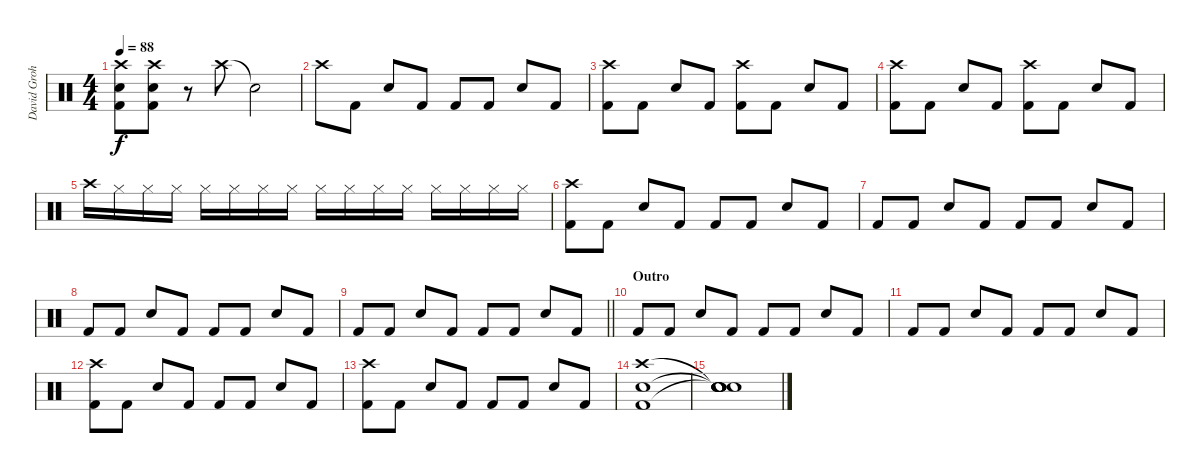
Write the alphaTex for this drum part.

\track ("David Grohl/Alfredo Ortiz" "David Groh") {instrument percussion}
\staff {score}
\articulation defaults
\ts (4 4)
\tempo 88
\clef neutral
\ks c
("Crash high (hit)" "Snare (hit) 2" "Kick (hit) 2").8{dy f} ("Crash high (hit)" "Snare (hit) 2" "Kick (hit) 2").8 r.8 "Crash high (hit)".8 "Snare (hit)"{t}.2 |
"Crash high (hit)".8 "Kick (hit) 2".8 "Snare (hit) 2".8 "Kick (hit) 2".8 "Kick (hit) 2".8 "Kick (hit) 2".8 "Snare (hit) 2".8 "Kick (hit) 2".8 |
("Crash high (hit)" "Kick (hit) 2").8 "Kick (hit) 2".8 "Snare (hit) 2".8 "Kick (hit) 2".8 ("Crash high (hit)" "Kick (hit) 2").8 "Kick (hit) 2".8 "Snare (hit) 2".8 "Kick (hit) 2".8 |
("Crash high (hit)" "Kick (hit) 2").8 "Kick (hit) 2".8 "Snare (hit) 2".8 "Kick (hit) 2".8 ("Crash high (hit)" "Kick (hit) 2").8 "Kick (hit) 2".8 "Snare (hit) 2".8 "Kick (hit) 2".8 |
"Crash high (hit)".16 "Hi-Hat (closed)".16 "Hi-Hat (closed)".16 "Hi-Hat (closed)".16 "Hi-Hat (closed)".16 "Hi-Hat (closed)".16 "Hi-Hat (closed)".16 "Hi-Hat (closed)".16 "Hi-Hat (closed)".16 "Hi-Hat (closed)".16 "Hi-Hat (closed)".16 "Hi-Hat (closed)".16 "Hi-Hat (closed)".16 "Hi-Hat (closed)".16 "Hi-Hat (closed)".16 "Hi-Hat (closed)".16 |
("Crash high (hit)" "Kick (hit) 2").8 "Kick (hit) 2".8 "Snare (hit) 2".8 "Kick (hit) 2".8 "Kick (hit) 2".8 "Kick (hit) 2".8 "Snare (hit) 2".8 "Kick (hit) 2".8 |
"Kick (hit) 2".8 "Kick (hit) 2".8 "Snare (hit) 2".8 "Kick (hit) 2".8 "Kick (hit) 2".8 "Kick (hit) 2".8 "Snare (hit) 2".8 "Kick (hit) 2".8 |
"Kick (hit) 2".8 "Kick (hit) 2".8 "Snare (hit) 2".8 "Kick (hit) 2".8 "Kick (hit) 2".8 "Kick (hit) 2".8 "Snare (hit) 2".8 "Kick (hit) 2".8 |
\barLineRight lightlight "Kick (hit) 2".8 "Kick (hit) 2".8 "Snare (hit) 2".8 "Kick (hit) 2".8 "Kick (hit) 2".8 "Kick (hit) 2".8 "Snare (hit) 2".8 "Kick (hit) 2".8
|
\section ("" "Outro")
"Kick (hit) 2".8 "Kick (hit) 2".8 "Snare (hit) 2".8 "Kick (hit) 2".8 "Kick (hit) 2".8 "Kick (hit) 2".8 "Snare (hit) 2".8 "Kick (hit) 2".8 |
"Kick (hit) 2".8 "Kick (hit) 2".8 "Snare (hit) 2".8 "Kick (hit) 2".8 "Kick (hit) 2".8 "Kick (hit) 2".8 "Snare (hit) 2".8 "Kick (hit) 2".8 |
("Crash high (hit)" "Kick (hit) 2").8 "Kick (hit) 2".8 "Snare (hit) 2".8 "Kick (hit) 2".8 "Kick (hit) 2".8 "Kick (hit) 2".8 "Snare (hit) 2".8 "Kick (hit) 2".8 |
("Crash high (hit)" "Kick (hit) 2").8 "Kick (hit) 2".8 "Snare (hit) 2".8 "Kick (hit) 2".8 "Kick (hit) 2".8 "Kick (hit) 2".8 "Snare (hit) 2".8 "Kick (hit) 2".8 |
("Crash high (hit)" "Snare (hit) 2" "Kick (hit) 2").1 |
("Snare (hit)"{t} "Snare (hit)"{t} "Snare (hit)"{t} "Snare (hit)" "Snare (hit)" "Snare (hit)").1
